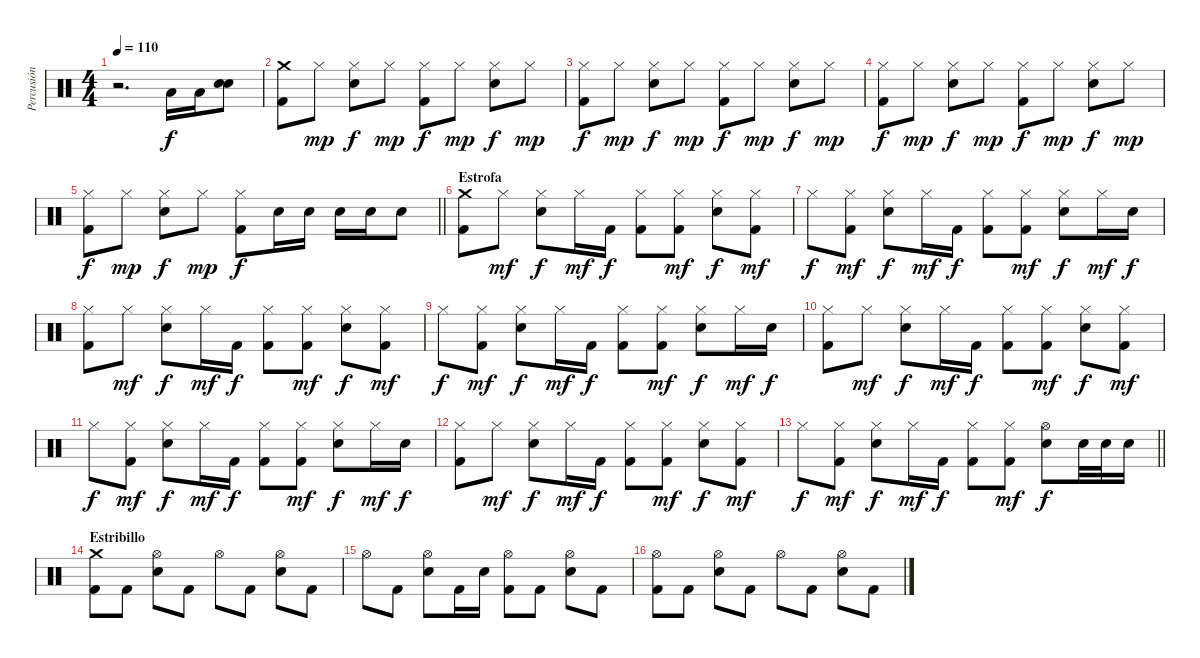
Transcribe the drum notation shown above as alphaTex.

\track ("Percusión" "Percusión") {instrument percussion}
\staff {score}
\articulation defaults
\ts (4 4)
\tempo 110
\clef neutral
\ks c
r.2{d dy f} "Low Tom (hit)".16 "Low Tom (hit)".16 ("Electric Snare (hit)" "Electric Snare (hit)").8{bd 60} |
("Crash medium (hit)" "Kick (hit) 2").8 "Hi-Hat (closed)".8{dy mp} ("Hi-Hat (closed)" "Electric Snare (hit)").8{dy f} "Hi-Hat (closed)".8{dy mp} ("Hi-Hat (closed)" "Kick (hit) 2").8{dy f} "Hi-Hat (closed)".8{dy mp} ("Hi-Hat (closed)" "Electric Snare (hit)").8{dy f} "Hi-Hat (closed)".8{dy mp} |
("Hi-Hat (closed)" "Kick (hit) 2").8{dy f} "Hi-Hat (closed)".8{dy mp} ("Hi-Hat (closed)" "Electric Snare (hit)").8{dy f} "Hi-Hat (closed)".8{dy mp} ("Hi-Hat (closed)" "Kick (hit) 2").8{dy f} "Hi-Hat (closed)".8{dy mp} ("Hi-Hat (closed)" "Electric Snare (hit)").8{dy f} "Hi-Hat (closed)".8{dy mp} |
("Hi-Hat (closed)" "Kick (hit) 2").8{dy f} "Hi-Hat (closed)".8{dy mp} ("Hi-Hat (closed)" "Electric Snare (hit)").8{dy f} "Hi-Hat (closed)".8{dy mp} ("Hi-Hat (closed)" "Kick (hit) 2").8{dy f} "Hi-Hat (closed)".8{dy mp} ("Hi-Hat (closed)" "Electric Snare (hit)").8{dy f} "Hi-Hat (closed)".8{dy mp} |
\barLineRight lightlight
("Hi-Hat (closed)" "Kick (hit) 2").8{dy f} "Hi-Hat (closed)".8{dy mp} ("Hi-Hat (closed)" "Electric Snare (hit)").8{dy f} "Hi-Hat (closed)".8{dy mp} ("Hi-Hat (closed)" "Kick (hit) 2").8{dy f} "Electric Snare (hit)".16 "Electric Snare (hit)".16 "Electric Snare (hit)".16 "Electric Snare (hit)".16 "Electric Snare (hit)".8 |
\section ("" "Estrofa")
("Crash medium (hit)" "Kick (hit) 2").8 "Hi-Hat (closed)".8{dy mf} ("Hi-Hat (closed)" "Electric Snare (hit)").8{dy f} "Hi-Hat (closed)".16{dy mf} "Kick (hit) 2".16{dy f} ("Hi-Hat (closed)" "Kick (hit) 2").8 ("Hi-Hat (closed)" "Kick (hit) 2").8{dy mf} ("Hi-Hat (closed)" "Electric Snare (hit)").8{dy f} ("Hi-Hat (closed)" "Kick (hit) 2").8{dy mf} |
"Hi-Hat (closed)".8{dy f} ("Hi-Hat (closed)" "Kick (hit) 2").8{dy mf} ("Hi-Hat (closed)" "Electric Snare (hit)").8{dy f} "Hi-Hat (closed)".16{dy mf} "Kick (hit) 2".16{dy f} ("Hi-Hat (closed)" "Kick (hit) 2").8 ("Hi-Hat (closed)" "Kick (hit) 2").8{dy mf} ("Hi-Hat (closed)" "Electric Snare (hit)").8{dy f} "Hi-Hat (closed)".16{dy mf} "Electric Snare (hit)".16{dy f} |
("Hi-Hat (closed)" "Kick (hit) 2").8 "Hi-Hat (closed)".8{dy mf} ("Hi-Hat (closed)" "Electric Snare (hit)").8{dy f} "Hi-Hat (closed)".16{dy mf} "Kick (hit) 2".16{dy f} ("Hi-Hat (closed)" "Kick (hit) 2").8 ("Hi-Hat (closed)" "Kick (hit) 2").8{dy mf} ("Hi-Hat (closed)" "Electric Snare (hit)").8{dy f} ("Hi-Hat (closed)" "Kick (hit) 2").8{dy mf} |
"Hi-Hat (closed)".8{dy f} ("Hi-Hat (closed)" "Kick (hit) 2").8{dy mf} ("Hi-Hat (closed)" "Electric Snare (hit)").8{dy f} "Hi-Hat (closed)".16{dy mf} "Kick (hit) 2".16{dy f} ("Hi-Hat (closed)" "Kick (hit) 2").8 ("Hi-Hat (closed)" "Kick (hit) 2").8{dy mf} ("Hi-Hat (closed)" "Electric Snare (hit)").8{dy f} "Hi-Hat (closed)".16{dy mf} "Electric Snare (hit)".16{dy f} |
("Hi-Hat (closed)" "Kick (hit) 2").8 "Hi-Hat (closed)".8{dy mf} ("Hi-Hat (closed)" "Electric Snare (hit)").8{dy f} "Hi-Hat (closed)".16{dy mf} "Kick (hit) 2".16{dy f} ("Hi-Hat (closed)" "Kick (hit) 2").8 ("Hi-Hat (closed)" "Kick (hit) 2").8{dy mf} ("Hi-Hat (closed)" "Electric Snare (hit)").8{dy f} ("Hi-Hat (closed)" "Kick (hit) 2").8{dy mf} |
"Hi-Hat (closed)".8{dy f} ("Hi-Hat (closed)" "Kick (hit) 2").8{dy mf} ("Hi-Hat (closed)" "Electric Snare (hit)").8{dy f} "Hi-Hat (closed)".16{dy mf} "Kick (hit) 2".16{dy f} ("Hi-Hat (closed)" "Kick (hit) 2").8 ("Hi-Hat (closed)" "Kick (hit) 2").8{dy mf} ("Hi-Hat (closed)" "Electric Snare (hit)").8{dy f} "Hi-Hat (closed)".16{dy mf} "Electric Snare (hit)".16{dy f} |
("Hi-Hat (closed)" "Kick (hit) 2").8 "Hi-Hat (closed)".8{dy mf} ("Hi-Hat (closed)" "Electric Snare (hit)").8{dy f} "Hi-Hat (closed)".16{dy mf} "Kick (hit) 2".16{dy f} ("Hi-Hat (closed)" "Kick (hit) 2").8 ("Hi-Hat (closed)" "Kick (hit) 2").8{dy mf} ("Hi-Hat (closed)" "Electric Snare (hit)").8{dy f} ("Hi-Hat (closed)" "Kick (hit) 2").8{dy mf} |
\barLineRight lightlight "Hi-Hat (closed)".8{dy f}
("Hi-Hat (closed)" "Kick (hit) 2").8{dy mf} ("Hi-Hat (closed)" "Electric Snare (hit)").8{dy f} "Hi-Hat (closed)".16{dy mf} "Kick (hit) 2".16{dy f} ("Hi-Hat (closed)" "Kick (hit) 2").8 ("Hi-Hat (closed)" "Kick (hit) 2").8{dy mf} ("Hi-Hat (open)" "Electric Snare (hit)").8{dy f} "Electric Snare (hit)".32 "Electric Snare (hit)".32 "Electric Snare (hit)".16 |
\section ("" "Estribillo")
("Crash medium (hit)" "Kick (hit) 2").8 "Kick (hit) 2".8 ("Hi-Hat (open)" "Electric Snare (hit)").8 "Kick (hit) 2".8 "Hi-Hat (open)".8 "Kick (hit) 2".8 ("Hi-Hat (open)" "Electric Snare (hit)").8 "Kick (hit) 2".8 |
"Hi-Hat (open)".8 "Kick (hit) 2".8 ("Hi-Hat (open)" "Electric Snare (hit)").8 "Kick (hit) 2".16 "Electric Snare (hit)".16 ("Hi-Hat (open)" "Kick (hit) 2").8 "Kick (hit) 2".8 ("Hi-Hat (open)" "Electric Snare (hit)").8 "Kick (hit) 2".8 |
("Hi-Hat (open)" "Kick (hit) 2").8 "Kick (hit) 2".8 ("Hi-Hat (open)" "Electric Snare (hit)").8 "Kick (hit) 2".8 "Hi-Hat (open)".8 "Kick (hit) 2".8 ("Hi-Hat (open)" "Electric Snare (hit)").8 "Kick (hit) 2".8
